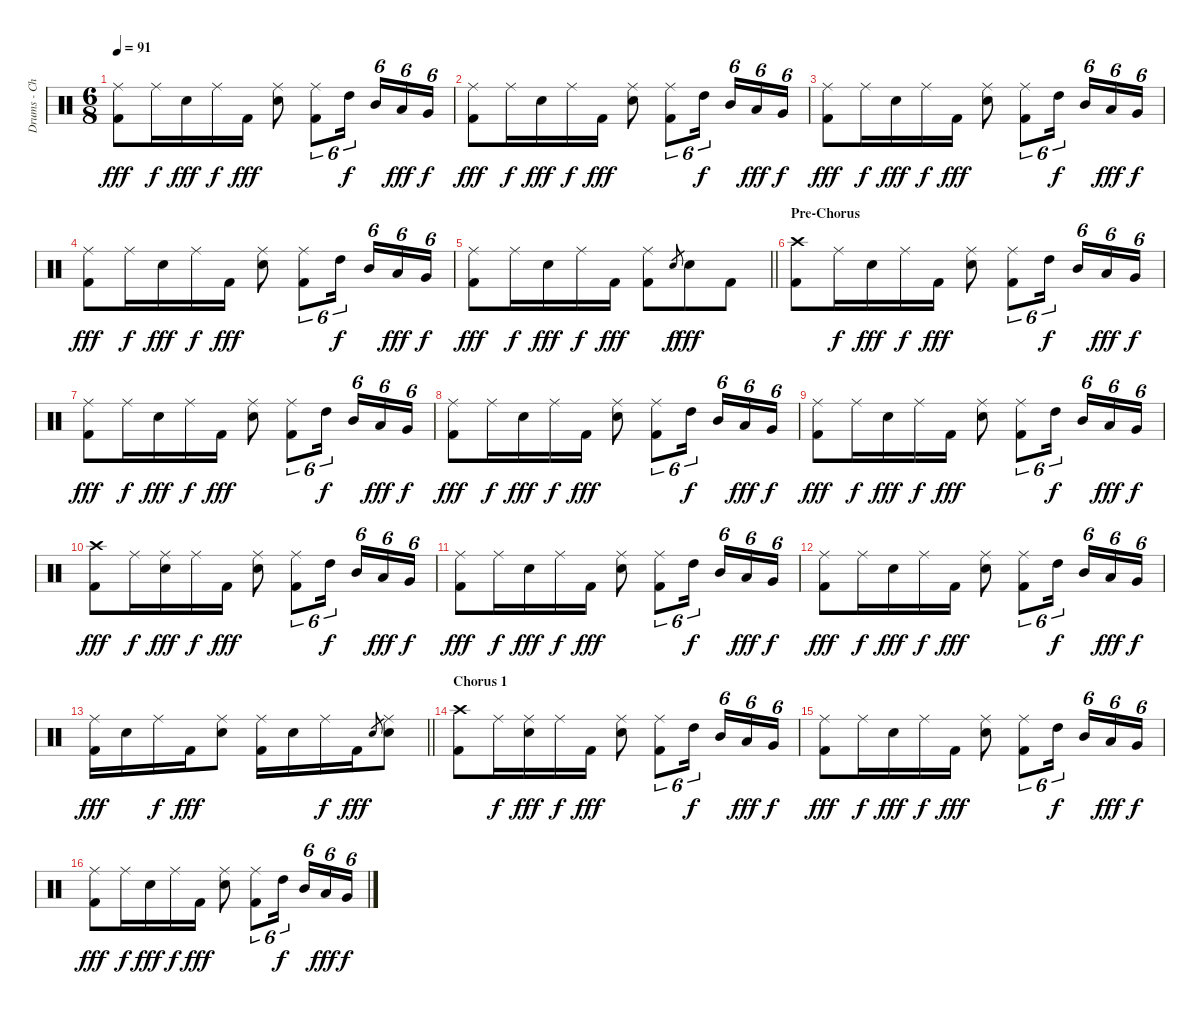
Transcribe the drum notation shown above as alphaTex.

\track ("Drums - Chad" "Drums - Ch") {instrument percussion}
\staff {score}
\articulation defaults
\ts (6 8)
\tempo 91
\clef neutral
\ks c
("Ride (middle)" "Kick (hit) 2").8{dy fff} "Ride (middle)".16{dy f} "Electric Snare (hit)".16{dy fff} "Ride (middle)".16{dy f} "Kick (hit) 2".16{dy fff} ("Ride (middle)" "Electric Snare (hit)").8 ("Ride (middle)" "Kick (hit) 2").8{tu (6 4)} "High Tom (hit)".16{tu (6 4) dy f} "Mid Tom (hit)".16{tu (6 4)} "Low Tom (hit)".16{tu (6 4) dy fff} "Very Low Tom (hit)".16{tu (6 4) dy f} |
("Ride (middle)" "Kick (hit) 2").8{dy fff} "Ride (middle)".16{dy f} "Electric Snare (hit)".16{dy fff} "Ride (middle)".16{dy f} "Kick (hit) 2".16{dy fff} ("Ride (middle)" "Electric Snare (hit)").8 ("Ride (middle)" "Kick (hit) 2").8{tu (6 4)} "High Tom (hit)".16{tu (6 4) dy f} "Mid Tom (hit)".16{tu (6 4)} "Low Tom (hit)".16{tu (6 4) dy fff} "Very Low Tom (hit)".16{tu (6 4) dy f} |
("Ride (middle)" "Kick (hit) 2").8{dy fff} "Ride (middle)".16{dy f} "Electric Snare (hit)".16{dy fff} "Ride (middle)".16{dy f} "Kick (hit) 2".16{dy fff} ("Ride (middle)" "Electric Snare (hit)").8 ("Ride (middle)" "Kick (hit) 2").8{tu (6 4)} "High Tom (hit)".16{tu (6 4) dy f} "Mid Tom (hit)".16{tu (6 4)} "Low Tom (hit)".16{tu (6 4) dy fff} "Very Low Tom (hit)".16{tu (6 4) dy f} |
("Ride (middle)" "Kick (hit) 2").8{dy fff} "Ride (middle)".16{dy f} "Electric Snare (hit)".16{dy fff} "Ride (middle)".16{dy f} "Kick (hit) 2".16{dy fff} ("Ride (middle)" "Electric Snare (hit)").8 ("Ride (middle)" "Kick (hit) 2").8{tu (6 4)} "High Tom (hit)".16{tu (6 4) dy f} "Mid Tom (hit)".16{tu (6 4)} "Low Tom (hit)".16{tu (6 4) dy fff} "Very Low Tom (hit)".16{tu (6 4) dy f} |
\barLineRight lightlight
("Ride (middle)" "Kick (hit) 2").8{dy fff} "Ride (middle)".16{dy f} "Electric Snare (hit)".16{dy fff} "Ride (middle)".16{dy f} "Kick (hit) 2".16{dy fff} ("Ride (middle)" "Kick (hit) 2").8 "Electric Snare (hit)".8{gr dy f} "Electric Snare (hit)".8{dy fff} "Kick (hit) 2".8 |
\section ("" "Pre-Chorus")
("Crash high (hit)" "Kick (hit) 2").8 "Ride (middle)".16{dy f} "Electric Snare (hit)".16{dy fff} "Ride (middle)".16{dy f} "Kick (hit) 2".16{dy fff} ("Ride (middle)" "Electric Snare (hit)").8 ("Ride (middle)" "Kick (hit) 2").8{tu (6 4)} "High Tom (hit)".16{tu (6 4) dy f} "Mid Tom (hit)".16{tu (6 4)} "Low Tom (hit)".16{tu (6 4) dy fff} "Very Low Tom (hit)".16{tu (6 4) dy f} |
("Ride (middle)" "Kick (hit) 2").8{dy fff} "Ride (middle)".16{dy f} "Electric Snare (hit)".16{dy fff} "Ride (middle)".16{dy f} "Kick (hit) 2".16{dy fff} ("Ride (middle)" "Electric Snare (hit)").8 ("Ride (middle)" "Kick (hit) 2").8{tu (6 4)} "High Tom (hit)".16{tu (6 4) dy f} "Mid Tom (hit)".16{tu (6 4)} "Low Tom (hit)".16{tu (6 4) dy fff} "Very Low Tom (hit)".16{tu (6 4) dy f} |
("Ride (middle)" "Kick (hit) 2").8{dy fff} "Ride (middle)".16{dy f} "Electric Snare (hit)".16{dy fff} "Ride (middle)".16{dy f} "Kick (hit) 2".16{dy fff} ("Ride (middle)" "Electric Snare (hit)").8 ("Ride (middle)" "Kick (hit) 2").8{tu (6 4)} "High Tom (hit)".16{tu (6 4) dy f} "Mid Tom (hit)".16{tu (6 4)} "Low Tom (hit)".16{tu (6 4) dy fff} "Very Low Tom (hit)".16{tu (6 4) dy f} |
("Ride (middle)" "Kick (hit) 2").8{dy fff} "Ride (middle)".16{dy f} "Electric Snare (hit)".16{dy fff} "Ride (middle)".16{dy f} "Kick (hit) 2".16{dy fff} ("Ride (middle)" "Electric Snare (hit)").8 ("Ride (middle)" "Kick (hit) 2").8{tu (6 4)} "High Tom (hit)".16{tu (6 4) dy f} "Mid Tom (hit)".16{tu (6 4)} "Low Tom (hit)".16{tu (6 4) dy fff} "Very Low Tom (hit)".16{tu (6 4) dy f} |
("Crash high (hit)" "Kick (hit) 2").8{dy fff} "Ride (middle)".16{dy f} ("Ride (middle)" "Electric Snare (hit)").16{dy fff} "Ride (middle)".16{dy f} "Kick (hit) 2".16{dy fff} ("Ride (middle)" "Electric Snare (hit)").8 ("Ride (middle)" "Kick (hit) 2").8{tu (6 4)} "High Tom (hit)".16{tu (6 4) dy f} "Mid Tom (hit)".16{tu (6 4)} "Low Tom (hit)".16{tu (6 4) dy fff} "Very Low Tom (hit)".16{tu (6 4) dy f} |
("Ride (middle)" "Kick (hit) 2").8{dy fff} "Ride (middle)".16{dy f} "Electric Snare (hit)".16{dy fff} "Ride (middle)".16{dy f} "Kick (hit) 2".16{dy fff} ("Ride (middle)" "Electric Snare (hit)").8 ("Ride (middle)" "Kick (hit) 2").8{tu (6 4)} "High Tom (hit)".16{tu (6 4) dy f} "Mid Tom (hit)".16{tu (6 4)} "Low Tom (hit)".16{tu (6 4) dy fff} "Very Low Tom (hit)".16{tu (6 4) dy f} |
("Ride (middle)" "Kick (hit) 2").8{dy fff} "Ride (middle)".16{dy f} "Electric Snare (hit)".16{dy fff} "Ride (middle)".16{dy f} "Kick (hit) 2".16{dy fff} ("Ride (middle)" "Electric Snare (hit)").8 ("Ride (middle)" "Kick (hit) 2").8{tu (6 4)} "High Tom (hit)".16{tu (6 4) dy f} "Mid Tom (hit)".16{tu (6 4)} "Low Tom (hit)".16{tu (6 4) dy fff} "Very Low Tom (hit)".16{tu (6 4) dy f} |
\barLineRight lightlight
("Ride (middle)" "Kick (hit) 2").16{dy fff} "Electric Snare (hit)".16 "Ride (middle)".16{dy f} "Kick (hit) 2".16{dy fff} ("Ride (middle)" "Electric Snare (hit)").8 ("Ride (middle)" "Kick (hit) 2").16 "Electric Snare (hit)".16 "Ride (middle)".16{dy f} "Kick (hit) 2".16{dy fff} "Electric Snare (hit)".8{gr} ("Ride (middle)" "Electric Snare (hit)").8 |
\section ("" "Chorus 1")
("Crash high (hit)" "Kick (hit) 2").8 "Ride (middle)".16{dy f} ("Ride (middle)" "Electric Snare (hit)").16{dy fff} "Ride (middle)".16{dy f} "Kick (hit) 2".16{dy fff} ("Ride (middle)" "Electric Snare (hit)").8 ("Ride (middle)" "Kick (hit) 2").8{tu (6 4)} "High Tom (hit)".16{tu (6 4) dy f} "Mid Tom (hit)".16{tu (6 4)} "Low Tom (hit)".16{tu (6 4) dy fff} "Very Low Tom (hit)".16{tu (6 4) dy f} |
("Ride (middle)" "Kick (hit) 2").8{dy fff} "Ride (middle)".16{dy f} "Electric Snare (hit)".16{dy fff} "Ride (middle)".16{dy f} "Kick (hit) 2".16{dy fff} ("Ride (middle)" "Electric Snare (hit)").8 ("Ride (middle)" "Kick (hit) 2").8{tu (6 4)} "High Tom (hit)".16{tu (6 4) dy f} "Mid Tom (hit)".16{tu (6 4)} "Low Tom (hit)".16{tu (6 4) dy fff} "Very Low Tom (hit)".16{tu (6 4) dy f} |
("Ride (middle)" "Kick (hit) 2").8{dy fff} "Ride (middle)".16{dy f} "Electric Snare (hit)".16{dy fff} "Ride (middle)".16{dy f} "Kick (hit) 2".16{dy fff} ("Ride (middle)" "Electric Snare (hit)").8 ("Ride (middle)" "Kick (hit) 2").8{tu (6 4)} "High Tom (hit)".16{tu (6 4) dy f} "Mid Tom (hit)".16{tu (6 4)} "Low Tom (hit)".16{tu (6 4) dy fff} "Very Low Tom (hit)".16{tu (6 4) dy f}
